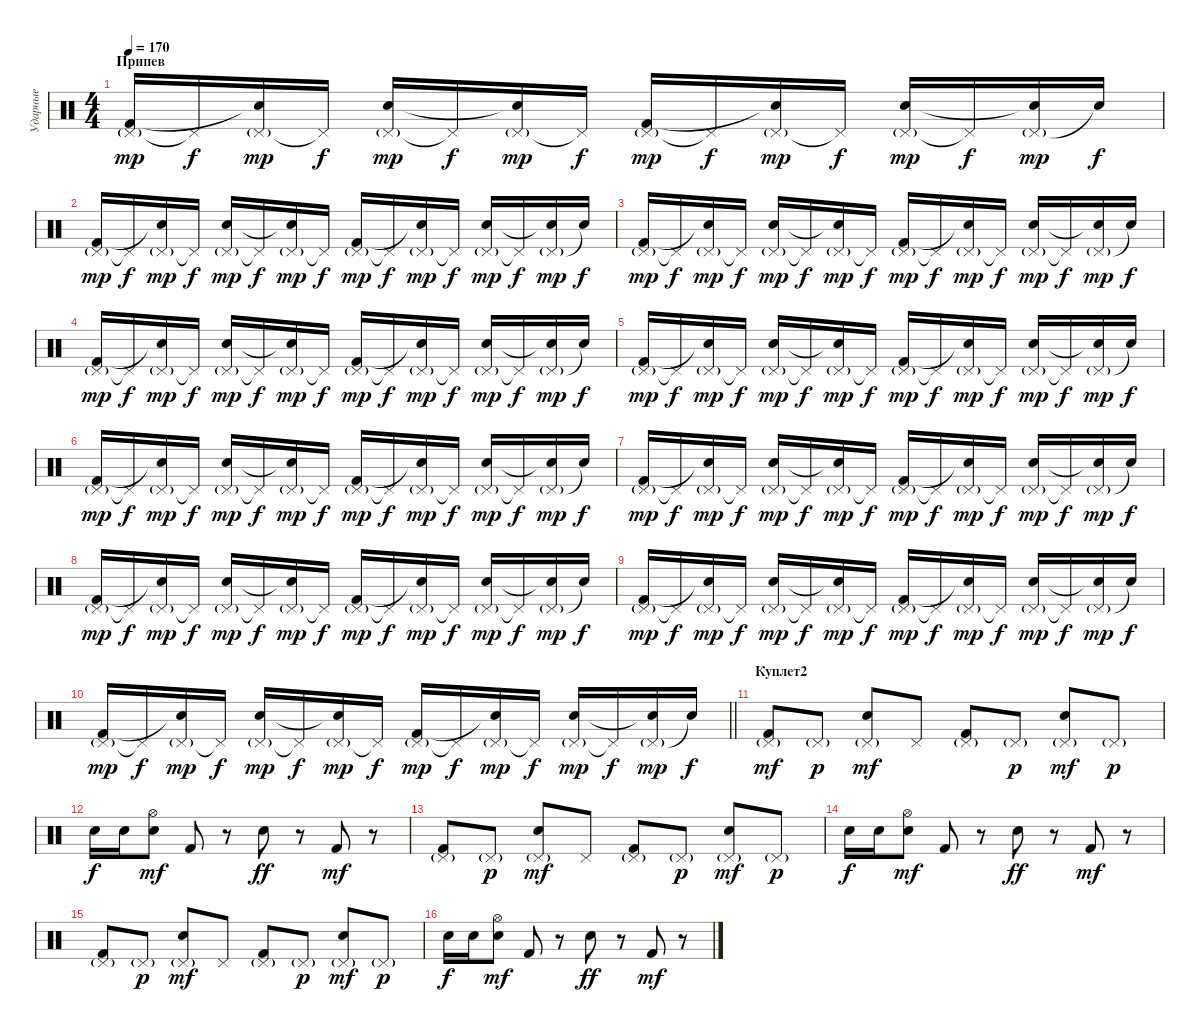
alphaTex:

\track ("Ударные" "Ударные") {instrument percussion}
\staff {score}
\articulation defaults
\ts (4 4)
\section ("" "Припев")
\tempo 170
\clef neutral
\ks c
("Pedal Hi-Hat (hit)"{g} "Kick (hit) 2").16{dy mp} "Pedal Hi-Hat (hit)"{t}.16{dy f} ("Pedal Hi-Hat (hit)"{g} "Snare (hit)"{t}).16{dy mp} "Pedal Hi-Hat (hit)"{t}.16{dy f} ("Pedal Hi-Hat (hit)"{g} "Electric Snare (hit)").16{dy mp} "Pedal Hi-Hat (hit)"{t}.16{dy f} ("Pedal Hi-Hat (hit)"{g} "Snare (hit)"{t}).16{dy mp} "Pedal Hi-Hat (hit)"{t}.16{dy f} ("Pedal Hi-Hat (hit)"{g} "Kick (hit) 2").16{dy mp} "Pedal Hi-Hat (hit)"{t}.16{dy f} ("Pedal Hi-Hat (hit)"{g} "Snare (hit)"{t}).16{dy mp} "Pedal Hi-Hat (hit)"{t}.16{dy f} ("Pedal Hi-Hat (hit)"{g} "Electric Snare (hit)").16{dy mp} "Pedal Hi-Hat (hit)"{t}.16{dy f} ("Pedal Hi-Hat (hit)"{g} "Snare (hit)"{t}).16{dy mp} "Snare (hit)"{t}.16{dy f} |
("Pedal Hi-Hat (hit)"{g} "Kick (hit) 2").16{dy mp} "Pedal Hi-Hat (hit)"{t}.16{dy f} ("Pedal Hi-Hat (hit)"{g} "Snare (hit)"{t}).16{dy mp} "Pedal Hi-Hat (hit)"{t}.16{dy f} ("Pedal Hi-Hat (hit)"{g} "Electric Snare (hit)").16{dy mp} "Pedal Hi-Hat (hit)"{t}.16{dy f} ("Pedal Hi-Hat (hit)"{g} "Snare (hit)"{t}).16{dy mp} "Pedal Hi-Hat (hit)"{t}.16{dy f} ("Pedal Hi-Hat (hit)"{g} "Kick (hit) 2").16{dy mp} "Pedal Hi-Hat (hit)"{t}.16{dy f} ("Pedal Hi-Hat (hit)"{g} "Snare (hit)"{t}).16{dy mp} "Pedal Hi-Hat (hit)"{t}.16{dy f} ("Pedal Hi-Hat (hit)"{g} "Electric Snare (hit)").16{dy mp} "Pedal Hi-Hat (hit)"{t}.16{dy f} ("Pedal Hi-Hat (hit)"{g} "Snare (hit)"{t}).16{dy mp} "Snare (hit)"{t}.16{dy f} |
("Pedal Hi-Hat (hit)"{g} "Kick (hit) 2").16{dy mp} "Pedal Hi-Hat (hit)"{t}.16{dy f} ("Pedal Hi-Hat (hit)"{g} "Snare (hit)"{t}).16{dy mp} "Pedal Hi-Hat (hit)"{t}.16{dy f} ("Pedal Hi-Hat (hit)"{g} "Electric Snare (hit)").16{dy mp} "Pedal Hi-Hat (hit)"{t}.16{dy f} ("Pedal Hi-Hat (hit)"{g} "Snare (hit)"{t}).16{dy mp} "Pedal Hi-Hat (hit)"{t}.16{dy f} ("Pedal Hi-Hat (hit)"{g} "Kick (hit) 2").16{dy mp} "Pedal Hi-Hat (hit)"{t}.16{dy f} ("Pedal Hi-Hat (hit)"{g} "Snare (hit)"{t}).16{dy mp} "Pedal Hi-Hat (hit)"{t}.16{dy f} ("Pedal Hi-Hat (hit)"{g} "Electric Snare (hit)").16{dy mp} "Pedal Hi-Hat (hit)"{t}.16{dy f} ("Pedal Hi-Hat (hit)"{g} "Snare (hit)"{t}).16{dy mp} "Snare (hit)"{t}.16{dy f} |
("Pedal Hi-Hat (hit)"{g} "Kick (hit) 2").16{dy mp} "Pedal Hi-Hat (hit)"{t}.16{dy f} ("Pedal Hi-Hat (hit)"{g} "Snare (hit)"{t}).16{dy mp} "Pedal Hi-Hat (hit)"{t}.16{dy f} ("Pedal Hi-Hat (hit)"{g} "Electric Snare (hit)").16{dy mp} "Pedal Hi-Hat (hit)"{t}.16{dy f} ("Pedal Hi-Hat (hit)"{g} "Snare (hit)"{t}).16{dy mp} "Pedal Hi-Hat (hit)"{t}.16{dy f} ("Pedal Hi-Hat (hit)"{g} "Kick (hit) 2").16{dy mp} "Pedal Hi-Hat (hit)"{t}.16{dy f} ("Pedal Hi-Hat (hit)"{g} "Snare (hit)"{t}).16{dy mp} "Pedal Hi-Hat (hit)"{t}.16{dy f} ("Pedal Hi-Hat (hit)"{g} "Electric Snare (hit)").16{dy mp} "Pedal Hi-Hat (hit)"{t}.16{dy f} ("Pedal Hi-Hat (hit)"{g} "Snare (hit)"{t}).16{dy mp} "Snare (hit)"{t}.16{dy f} |
("Pedal Hi-Hat (hit)"{g} "Kick (hit) 2").16{dy mp} "Pedal Hi-Hat (hit)"{t}.16{dy f} ("Pedal Hi-Hat (hit)"{g} "Snare (hit)"{t}).16{dy mp} "Pedal Hi-Hat (hit)"{t}.16{dy f} ("Pedal Hi-Hat (hit)"{g} "Electric Snare (hit)").16{dy mp} "Pedal Hi-Hat (hit)"{t}.16{dy f} ("Pedal Hi-Hat (hit)"{g} "Snare (hit)"{t}).16{dy mp} "Pedal Hi-Hat (hit)"{t}.16{dy f} ("Pedal Hi-Hat (hit)"{g} "Kick (hit) 2").16{dy mp} "Pedal Hi-Hat (hit)"{t}.16{dy f} ("Pedal Hi-Hat (hit)"{g} "Snare (hit)"{t}).16{dy mp} "Pedal Hi-Hat (hit)"{t}.16{dy f} ("Pedal Hi-Hat (hit)"{g} "Electric Snare (hit)").16{dy mp} "Pedal Hi-Hat (hit)"{t}.16{dy f} ("Pedal Hi-Hat (hit)"{g} "Snare (hit)"{t}).16{dy mp} "Snare (hit)"{t}.16{dy f} |
("Pedal Hi-Hat (hit)"{g} "Kick (hit) 2").16{dy mp} "Pedal Hi-Hat (hit)"{t}.16{dy f} ("Pedal Hi-Hat (hit)"{g} "Snare (hit)"{t}).16{dy mp} "Pedal Hi-Hat (hit)"{t}.16{dy f} ("Pedal Hi-Hat (hit)"{g} "Electric Snare (hit)").16{dy mp} "Pedal Hi-Hat (hit)"{t}.16{dy f} ("Pedal Hi-Hat (hit)"{g} "Snare (hit)"{t}).16{dy mp} "Pedal Hi-Hat (hit)"{t}.16{dy f} ("Pedal Hi-Hat (hit)"{g} "Kick (hit) 2").16{dy mp} "Pedal Hi-Hat (hit)"{t}.16{dy f} ("Pedal Hi-Hat (hit)"{g} "Snare (hit)"{t}).16{dy mp} "Pedal Hi-Hat (hit)"{t}.16{dy f} ("Pedal Hi-Hat (hit)"{g} "Electric Snare (hit)").16{dy mp} "Pedal Hi-Hat (hit)"{t}.16{dy f} ("Pedal Hi-Hat (hit)"{g} "Snare (hit)"{t}).16{dy mp} "Snare (hit)"{t}.16{dy f} |
("Pedal Hi-Hat (hit)"{g} "Kick (hit) 2").16{dy mp} "Pedal Hi-Hat (hit)"{t}.16{dy f} ("Pedal Hi-Hat (hit)"{g} "Snare (hit)"{t}).16{dy mp} "Pedal Hi-Hat (hit)"{t}.16{dy f} ("Pedal Hi-Hat (hit)"{g} "Electric Snare (hit)").16{dy mp} "Pedal Hi-Hat (hit)"{t}.16{dy f} ("Pedal Hi-Hat (hit)"{g} "Snare (hit)"{t}).16{dy mp} "Pedal Hi-Hat (hit)"{t}.16{dy f} ("Pedal Hi-Hat (hit)"{g} "Kick (hit) 2").16{dy mp} "Pedal Hi-Hat (hit)"{t}.16{dy f} ("Pedal Hi-Hat (hit)"{g} "Snare (hit)"{t}).16{dy mp} "Pedal Hi-Hat (hit)"{t}.16{dy f} ("Pedal Hi-Hat (hit)"{g} "Electric Snare (hit)").16{dy mp} "Pedal Hi-Hat (hit)"{t}.16{dy f} ("Pedal Hi-Hat (hit)"{g} "Snare (hit)"{t}).16{dy mp} "Snare (hit)"{t}.16{dy f} |
("Pedal Hi-Hat (hit)"{g} "Kick (hit) 2").16{dy mp} "Pedal Hi-Hat (hit)"{t}.16{dy f} ("Pedal Hi-Hat (hit)"{g} "Snare (hit)"{t}).16{dy mp} "Pedal Hi-Hat (hit)"{t}.16{dy f} ("Pedal Hi-Hat (hit)"{g} "Electric Snare (hit)").16{dy mp} "Pedal Hi-Hat (hit)"{t}.16{dy f} ("Pedal Hi-Hat (hit)"{g} "Snare (hit)"{t}).16{dy mp} "Pedal Hi-Hat (hit)"{t}.16{dy f} ("Pedal Hi-Hat (hit)"{g} "Kick (hit) 2").16{dy mp} "Pedal Hi-Hat (hit)"{t}.16{dy f} ("Pedal Hi-Hat (hit)"{g} "Snare (hit)"{t}).16{dy mp} "Pedal Hi-Hat (hit)"{t}.16{dy f} ("Pedal Hi-Hat (hit)"{g} "Electric Snare (hit)").16{dy mp} "Pedal Hi-Hat (hit)"{t}.16{dy f} ("Pedal Hi-Hat (hit)"{g} "Snare (hit)"{t}).16{dy mp} "Snare (hit)"{t}.16{dy f} |
("Pedal Hi-Hat (hit)"{g} "Kick (hit) 2").16{dy mp} "Pedal Hi-Hat (hit)"{t}.16{dy f} ("Pedal Hi-Hat (hit)"{g} "Snare (hit)"{t}).16{dy mp} "Pedal Hi-Hat (hit)"{t}.16{dy f} ("Pedal Hi-Hat (hit)"{g} "Electric Snare (hit)").16{dy mp} "Pedal Hi-Hat (hit)"{t}.16{dy f} ("Pedal Hi-Hat (hit)"{g} "Snare (hit)"{t}).16{dy mp} "Pedal Hi-Hat (hit)"{t}.16{dy f} ("Pedal Hi-Hat (hit)"{g} "Kick (hit) 2").16{dy mp} "Pedal Hi-Hat (hit)"{t}.16{dy f} ("Pedal Hi-Hat (hit)"{g} "Snare (hit)"{t}).16{dy mp} "Pedal Hi-Hat (hit)"{t}.16{dy f} ("Pedal Hi-Hat (hit)"{g} "Electric Snare (hit)").16{dy mp} "Pedal Hi-Hat (hit)"{t}.16{dy f} ("Pedal Hi-Hat (hit)"{g} "Snare (hit)"{t}).16{dy mp} "Snare (hit)"{t}.16{dy f} |
\barLineRight lightlight
("Pedal Hi-Hat (hit)"{g} "Kick (hit) 2").16{dy mp} "Pedal Hi-Hat (hit)"{t}.16{dy f} ("Pedal Hi-Hat (hit)"{g} "Snare (hit)"{t}).16{dy mp} "Pedal Hi-Hat (hit)"{t}.16{dy f} ("Pedal Hi-Hat (hit)"{g} "Electric Snare (hit)").16{dy mp} "Pedal Hi-Hat (hit)"{t}.16{dy f} ("Pedal Hi-Hat (hit)"{g} "Snare (hit)"{t}).16{dy mp} "Pedal Hi-Hat (hit)"{t}.16{dy f} ("Pedal Hi-Hat (hit)"{g} "Kick (hit) 2").16{dy mp} "Pedal Hi-Hat (hit)"{t}.16{dy f} ("Pedal Hi-Hat (hit)"{g} "Snare (hit)"{t}).16{dy mp} "Pedal Hi-Hat (hit)"{t}.16{dy f} ("Pedal Hi-Hat (hit)"{g} "Electric Snare (hit)").16{dy mp} "Pedal Hi-Hat (hit)"{t}.16{dy f} ("Pedal Hi-Hat (hit)"{g} "Snare (hit)"{t}).16{dy mp} "Snare (hit)"{t}.16{dy f} |
\section ("" "Куплет2")
("Pedal Hi-Hat (hit)"{g} "Kick (hit) 2").8{dy mf} "Pedal Hi-Hat (hit)"{g}.8{dy p} ("Pedal Hi-Hat (hit)"{g} "Electric Snare (hit)").8{dy mf} "Pedal Hi-Hat (hit)".8 ("Pedal Hi-Hat (hit)"{g} "Kick (hit) 2").8 "Pedal Hi-Hat (hit)"{g}.8{dy p} ("Pedal Hi-Hat (hit)"{g} "Electric Snare (hit)").8{dy mf} "Pedal Hi-Hat (hit)"{g}.8{dy p} |
"Snare (hit) 2".16{dy f} "Snare (hit) 2".16 ("Hi-Hat (open)" "Electric Snare (hit)").8{dy mf} "Kick (hit) 2".8 r.8 "Electric Snare (hit)".8{dy ff} r.8 "Kick (hit) 2".8{dy mf} r.8 |
("Pedal Hi-Hat (hit)"{g} "Kick (hit) 2").8 "Pedal Hi-Hat (hit)"{g}.8{dy p} ("Pedal Hi-Hat (hit)"{g} "Electric Snare (hit)").8{dy mf} "Pedal Hi-Hat (hit)".8 ("Pedal Hi-Hat (hit)"{g} "Kick (hit) 2").8 "Pedal Hi-Hat (hit)"{g}.8{dy p} ("Pedal Hi-Hat (hit)"{g} "Electric Snare (hit)").8{dy mf} "Pedal Hi-Hat (hit)"{g}.8{dy p} |
"Snare (hit) 2".16{dy f} "Snare (hit) 2".16 ("Hi-Hat (open)" "Electric Snare (hit)").8{dy mf} "Kick (hit) 2".8 r.8 "Electric Snare (hit)".8{dy ff} r.8 "Kick (hit) 2".8{dy mf} r.8 |
("Pedal Hi-Hat (hit)"{g} "Kick (hit) 2").8 "Pedal Hi-Hat (hit)"{g}.8{dy p} ("Pedal Hi-Hat (hit)"{g} "Electric Snare (hit)").8{dy mf} "Pedal Hi-Hat (hit)".8 ("Pedal Hi-Hat (hit)"{g} "Kick (hit) 2").8 "Pedal Hi-Hat (hit)"{g}.8{dy p} ("Pedal Hi-Hat (hit)"{g} "Electric Snare (hit)").8{dy mf} "Pedal Hi-Hat (hit)"{g}.8{dy p} |
"Snare (hit) 2".16{dy f} "Snare (hit) 2".16 ("Hi-Hat (open)" "Electric Snare (hit)").8{dy mf} "Kick (hit) 2".8 r.8 "Electric Snare (hit)".8{dy ff} r.8 "Kick (hit) 2".8{dy mf} r.8
